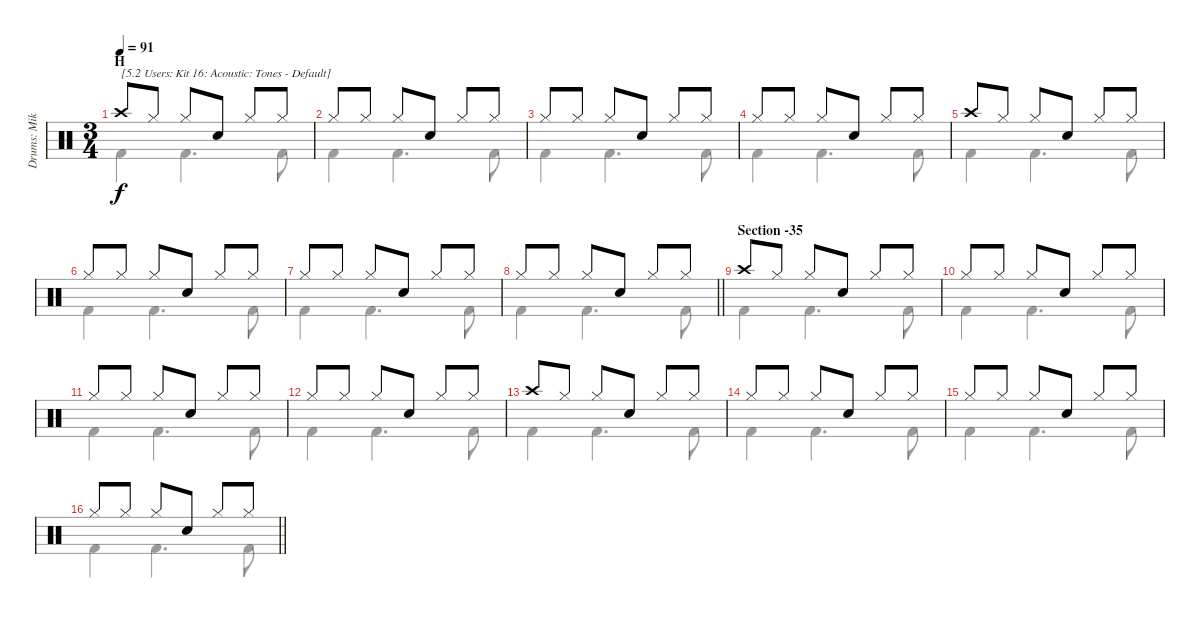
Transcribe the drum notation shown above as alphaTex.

\track ("Drums: Mike" "Drums: Mik") {instrument percussion}
\staff {score}
\articulation defaults
\voice
\ts (3 4)
\section ("" "H")
\tempo 91
\clef neutral
\ks c "Crash high (hit)".8{txt "[5.2 Users: Kit 16: Acoustic: Tones - Default]" dy f} "Hi-Hat (closed)".8 "Hi-Hat (closed)".8 "Snare (hit) 2".8 "Hi-Hat (closed)".8 "Hi-Hat (closed)".8
|
"Hi-Hat (closed)".8 "Hi-Hat (closed)".8 "Hi-Hat (closed)".8 "Snare (hit) 2".8 "Hi-Hat (closed)".8 "Hi-Hat (closed)".8 |
"Hi-Hat (closed)".8 "Hi-Hat (closed)".8 "Hi-Hat (closed)".8 "Snare (hit) 2".8 "Hi-Hat (closed)".8 "Hi-Hat (closed)".8 |
"Hi-Hat (closed)".8 "Hi-Hat (closed)".8 "Hi-Hat (closed)".8 "Snare (hit) 2".8 "Hi-Hat (closed)".8 "Hi-Hat (closed)".8 |
"Crash high (hit)".8 "Hi-Hat (closed)".8 "Hi-Hat (closed)".8 "Snare (hit) 2".8 "Hi-Hat (closed)".8 "Hi-Hat (closed)".8 |
"Hi-Hat (closed)".8 "Hi-Hat (closed)".8 "Hi-Hat (closed)".8 "Snare (hit) 2".8 "Hi-Hat (closed)".8 "Hi-Hat (closed)".8 |
"Hi-Hat (closed)".8 "Hi-Hat (closed)".8 "Hi-Hat (closed)".8 "Snare (hit) 2".8 "Hi-Hat (closed)".8 "Hi-Hat (closed)".8 |
\barLineRight lightlight "Hi-Hat (closed)".8 "Hi-Hat (closed)".8 "Hi-Hat (closed)".8 "Snare (hit) 2".8 "Hi-Hat (closed)".8 "Hi-Hat (closed)".8
|
\section ("" "Section -35")
"Crash high (hit)".8 "Hi-Hat (closed)".8 "Hi-Hat (closed)".8 "Snare (hit) 2".8 "Hi-Hat (closed)".8 "Hi-Hat (closed)".8 |
"Hi-Hat (closed)".8 "Hi-Hat (closed)".8 "Hi-Hat (closed)".8 "Snare (hit) 2".8 "Hi-Hat (closed)".8 "Hi-Hat (closed)".8 |
"Hi-Hat (closed)".8 "Hi-Hat (closed)".8 "Hi-Hat (closed)".8 "Snare (hit) 2".8 "Hi-Hat (closed)".8 "Hi-Hat (closed)".8 |
"Hi-Hat (closed)".8 "Hi-Hat (closed)".8 "Hi-Hat (closed)".8 "Snare (hit) 2".8 "Hi-Hat (closed)".8 "Hi-Hat (closed)".8 |
"Crash high (hit)".8 "Hi-Hat (closed)".8 "Hi-Hat (closed)".8 "Snare (hit) 2".8 "Hi-Hat (closed)".8 "Hi-Hat (closed)".8 |
"Hi-Hat (closed)".8 "Hi-Hat (closed)".8 "Hi-Hat (closed)".8 "Snare (hit) 2".8 "Hi-Hat (closed)".8 "Hi-Hat (closed)".8 |
"Hi-Hat (closed)".8 "Hi-Hat (closed)".8 "Hi-Hat (closed)".8 "Snare (hit) 2".8 "Hi-Hat (closed)".8 "Hi-Hat (closed)".8 |
\barLineRight lightlight "Hi-Hat (closed)".8 "Hi-Hat (closed)".8 "Hi-Hat (closed)".8 "Snare (hit) 2".8 "Hi-Hat (closed)".8 "Hi-Hat (closed)".8
\voice
\clef neutral
\ottava regular
\simile none
\ks c "Kick (hit) 2".4{dy f} "Kick (hit) 2".4{d} "Kick (hit) 2".8
|
"Kick (hit) 2".4 "Kick (hit) 2".4{d} "Kick (hit) 2".8 |
"Kick (hit) 2".4 "Kick (hit) 2".4{d} "Kick (hit) 2".8 |
"Kick (hit) 2".4 "Kick (hit) 2".4{d} "Kick (hit) 2".8 |
"Kick (hit) 2".4 "Kick (hit) 2".4{d} "Kick (hit) 2".8 |
"Kick (hit) 2".4 "Kick (hit) 2".4{d} "Kick (hit) 2".8 |
"Kick (hit) 2".4 "Kick (hit) 2".4{d} "Kick (hit) 2".8 |
\barLineRight lightlight "Kick (hit) 2".4 "Kick (hit) 2".4{d} "Kick (hit) 2".8
|
"Kick (hit) 2".4 "Kick (hit) 2".4{d} "Kick (hit) 2".8 |
"Kick (hit) 2".4 "Kick (hit) 2".4{d} "Kick (hit) 2".8 |
"Kick (hit) 2".4 "Kick (hit) 2".4{d} "Kick (hit) 2".8 |
"Kick (hit) 2".4 "Kick (hit) 2".4{d} "Kick (hit) 2".8 |
"Kick (hit) 2".4 "Kick (hit) 2".4{d} "Kick (hit) 2".8 |
"Kick (hit) 2".4 "Kick (hit) 2".4{d} "Kick (hit) 2".8 |
"Kick (hit) 2".4 "Kick (hit) 2".4{d} "Kick (hit) 2".8 |
\barLineRight lightlight "Kick (hit) 2".4 "Kick (hit) 2".4{d} "Kick (hit) 2".8
